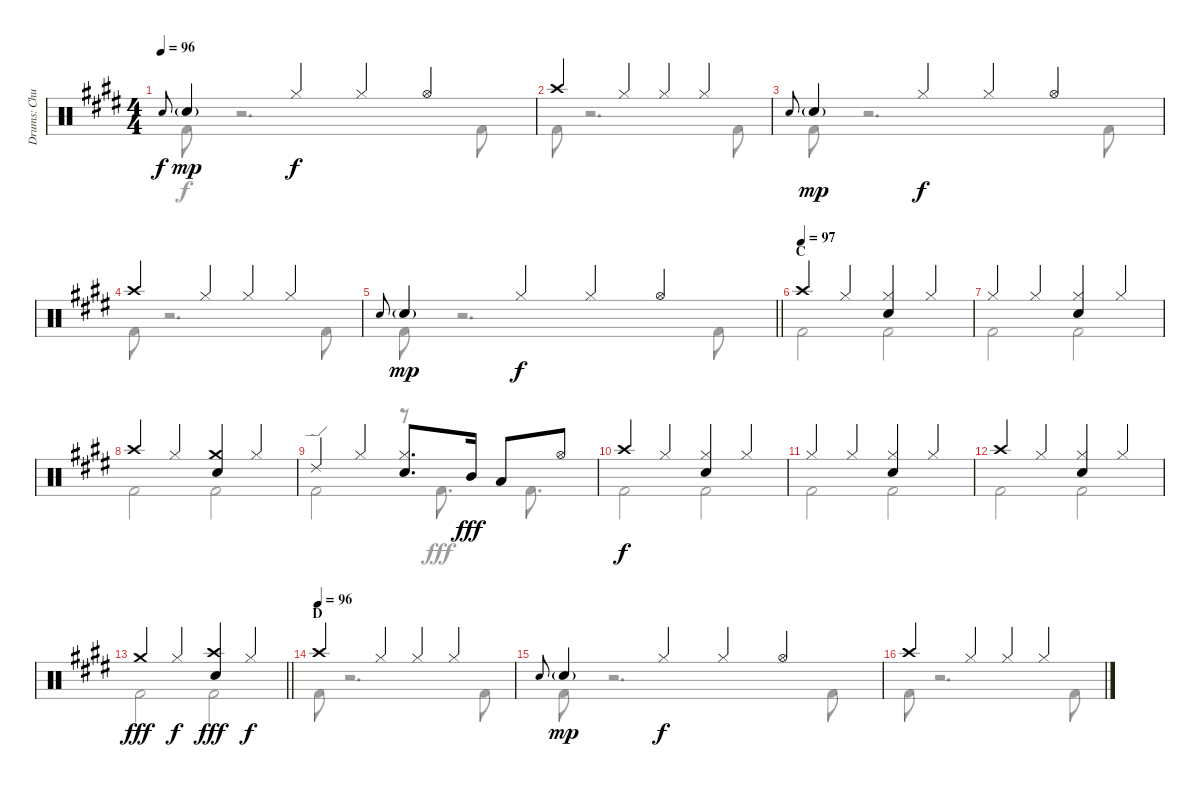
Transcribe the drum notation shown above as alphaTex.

\track ("Drums: Chuck" "Drums: Chu") {instrument percussion}
\staff {score}
\articulation defaults
\voice
\ts (4 4)
\tempo 96
\clef neutral
\ks e "Electric Snare (hit)".8{gr onbeat dy f} "Snare (hit) 2"{g}.4{dy mp} "Hi-Hat (closed)".4{dy f} "Hi-Hat (closed)".4 "Hi-Hat (open)".4
|
"Crash high (hit)".4 "Hi-Hat (closed)".4 "Hi-Hat (closed)".4 "Hi-Hat (closed)".4 |
"Electric Snare (hit)".8{gr onbeat} "Snare (hit) 2"{g}.4{dy mp} "Hi-Hat (closed)".4{dy f} "Hi-Hat (closed)".4 "Hi-Hat (open)".4 |
"Crash high (hit)".4 "Hi-Hat (closed)".4 "Hi-Hat (closed)".4 "Hi-Hat (closed)".4 |
\barLineRight lightlight "Electric Snare (hit)".8{gr onbeat} "Snare (hit) 2"{g}.4{dy mp} "Hi-Hat (closed)".4{dy f} "Hi-Hat (closed)".4 "Hi-Hat (open)".4
|
\section ("" "C")
\tempo (97)
"Crash high (hit)".4 "Hi-Hat (closed)".4 ("Hi-Hat (closed)" "Snare (hit) 2").4 "Hi-Hat (closed)".4 |
"Hi-Hat (closed)".4 "Hi-Hat (closed)".4 ("Hi-Hat (closed)" "Snare (hit) 2").4 "Hi-Hat (closed)".4 |
"Crash high (hit)".4 "Hi-Hat (closed)".4 ("Crash medium (hit)" "Snare (hit) 2").4 "Hi-Hat (closed)".4 |
"Ride (edge) 2".4 "Hi-Hat (closed)".4 ("Hi-Hat (closed)" "Snare (hit) 2").8{d} "Mid Tom (hit)".16{dy fff} "Low Tom (hit)".8 "Hi-Hat (open)".8 |
"Crash high (hit)".4{dy f} "Hi-Hat (closed)".4 ("Hi-Hat (closed)" "Snare (hit) 2").4 "Hi-Hat (closed)".4 |
"Hi-Hat (closed)".4 "Hi-Hat (closed)".4 ("Hi-Hat (closed)" "Snare (hit) 2").4 "Hi-Hat (closed)".4 |
"Crash high (hit)".4 "Hi-Hat (closed)".4 ("Hi-Hat (closed)" "Snare (hit) 2").4 "Hi-Hat (closed)".4 |
\barLineRight lightlight "Crash medium (hit)".4{dy fff} "Hi-Hat (closed)".4{dy f}
("Crash high (hit)" "Snare (hit) 2").4{dy fff} "Hi-Hat (closed)".4{dy f} |
\section ("" "D")
\tempo (96)
"Crash high (hit)".4 "Hi-Hat (closed)".4 "Hi-Hat (closed)".4 "Hi-Hat (closed)".4 |
"Electric Snare (hit)".8{gr onbeat} "Snare (hit) 2"{g}.4{dy mp} "Hi-Hat (closed)".4{dy f} "Hi-Hat (closed)".4 "Hi-Hat (open)".4 |
"Crash high (hit)".4 "Hi-Hat (closed)".4 "Hi-Hat (closed)".4 "Hi-Hat (closed)".4
\voice
\clef neutral
\ottava regular
\simile none
\ks e "Kick (hit) 2".8{dy f}
r.2{d} "Kick (hit) 2".8 |
"Kick (hit) 2".8 r.2{d} "Kick (hit) 2".8 |
"Kick (hit) 2".8 r.2{d} "Kick (hit) 2".8 |
"Kick (hit) 2".8 r.2{d} "Kick (hit) 2".8 |
\barLineRight lightlight "Kick (hit) 2".8
r.2{d} "Kick (hit) 2".8 |
"Kick (hit) 2".2 "Kick (hit) 2".2 |
"Kick (hit) 2".2 "Kick (hit) 2".2 |
"Kick (hit) 2".2 "Kick (hit) 2".2 |
"Kick (hit) 2".2 r.8 "Kick (hit) 2".8{d dy fff} "Kick (hit) 2".8{d} |
"Kick (hit) 2".2{dy f} "Kick (hit) 2".2 |
"Kick (hit) 2".2 "Kick (hit) 2".2 |
"Kick (hit) 2".2 "Kick (hit) 2".2 |
\barLineRight lightlight "Kick (hit) 2".2 "Kick (hit) 2".2
|
"Kick (hit) 2".8 r.2{d} "Kick (hit) 2".8 |
"Kick (hit) 2".8 r.2{d} "Kick (hit) 2".8 |
"Kick (hit) 2".8 r.2{d} "Kick (hit) 2".8
